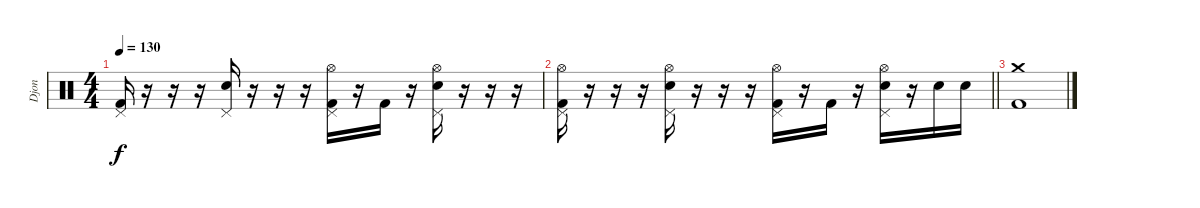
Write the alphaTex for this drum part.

\track ("Djon" "Djon") {instrument percussion}
\staff {score}
\articulation defaults
\ts (4 4)
\tempo 130
\clef neutral
\ks c
("Pedal Hi-Hat (hit)" "Kick (hit) 2").16{dy f} r.16 r.16 r.16 ("Pedal Hi-Hat (hit)" "Snare (hit) 2").16 r.16 r.16 r.16 ("Pedal Hi-Hat (hit)" "Hi-Hat (open)" "Kick (hit) 2").16 r.16 "Kick (hit) 2".16 r.16 ("Pedal Hi-Hat (hit)" "Hi-Hat (open)" "Snare (hit) 2").16 r.16 r.16 r.16 |
\barLineRight lightlight
("Pedal Hi-Hat (hit)" "Hi-Hat (open)" "Kick (hit) 2").16 r.16 r.16 r.16 ("Pedal Hi-Hat (hit)" "Hi-Hat (open)" "Snare (hit) 2").16 r.16 r.16 r.16 ("Pedal Hi-Hat (hit)" "Hi-Hat (open)" "Kick (hit) 2").16 r.16 "Kick (hit) 2".16 r.16 ("Pedal Hi-Hat (hit)" "Hi-Hat (open)" "Snare (hit) 2").16 r.16 "Snare (hit) 2".16 "Snare (hit) 2".16 |
("Crash medium (hit)" "Kick (hit) 2").1
